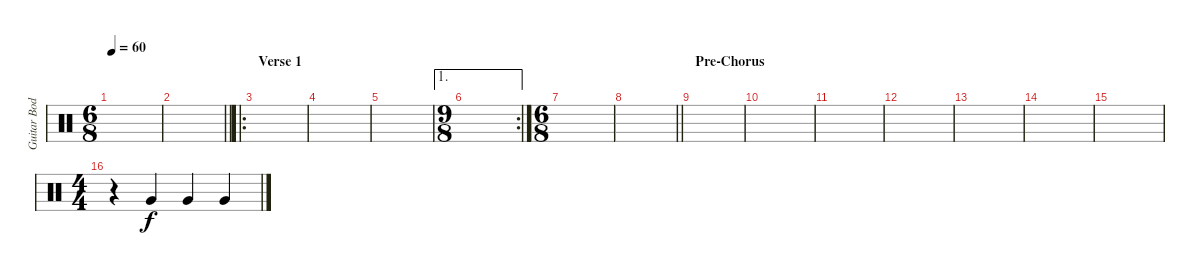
\track ("Guitar Body" "Guitar Bod") {instrument percussion}
\staff {score}
\articulation defaults
\ts (6 8)
\tempo 60
\clef neutral
\ks c
|
\barLineRight lightlight
|
\ro
\section ("" "Verse 1")
|
|
|
\ae 1
\rc 2
\ts (9 8)
|
\ts (6 8)
|
\barLineRight lightlight
|
\section ("" "Pre-Chorus")
|
|
|
|
|
|
|
\ts (4 4)
r.4 "Very Low Tom (hit)".4 "Very Low Tom (hit)".4 "Very Low Tom (hit)".4
